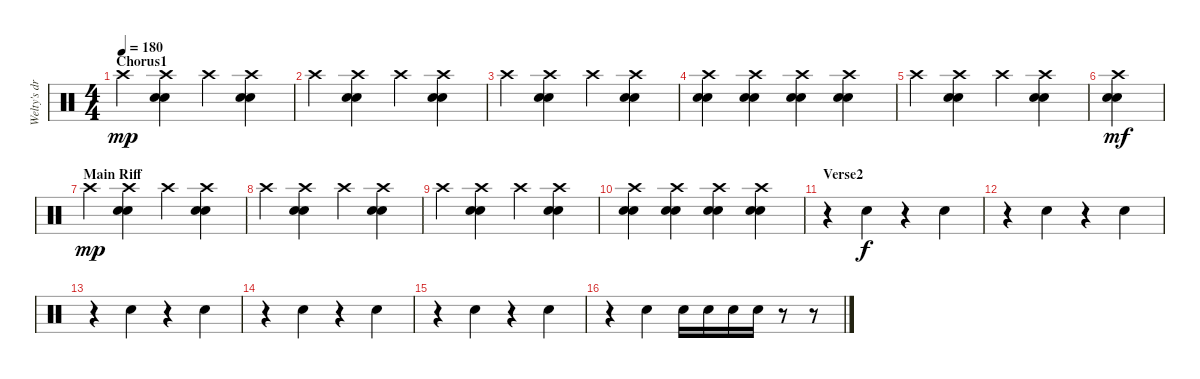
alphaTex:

\track ("Welty's drums" "Welty's dr") {instrument percussion}
\staff {score}
\articulation defaults
\ts (4 4)
\section ("" "Chorus1")
\tempo 180
\clef neutral
\ks c "Crash high (hit)".4{dy mp}
("Crash high (hit)" "Electric Snare (hit)" "Electric Snare (hit)").4 "Crash high (hit)".4 ("Crash high (hit)" "Electric Snare (hit)" "Electric Snare (hit)").4 |
"Crash high (hit)".4 ("Crash high (hit)" "Electric Snare (hit)" "Electric Snare (hit)").4 "Crash high (hit)".4 ("Crash high (hit)" "Electric Snare (hit)" "Electric Snare (hit)").4 |
"Crash high (hit)".4 ("Crash high (hit)" "Electric Snare (hit)" "Electric Snare (hit)").4 "Crash high (hit)".4 ("Crash high (hit)" "Electric Snare (hit)" "Electric Snare (hit)").4 |
("Crash high (hit)" "Electric Snare (hit)" "Electric Snare (hit)").4 ("Crash high (hit)" "Electric Snare (hit)" "Electric Snare (hit)").4 ("Crash high (hit)" "Electric Snare (hit)" "Electric Snare (hit)").4 ("Crash high (hit)" "Electric Snare (hit)" "Electric Snare (hit)").4 |
"Crash high (hit)".4 ("Crash high (hit)" "Electric Snare (hit)" "Electric Snare (hit)").4 "Crash high (hit)".4 ("Crash high (hit)" "Electric Snare (hit)" "Electric Snare (hit)").4 |
("Crash high (hit)" "Electric Snare (hit)" "Electric Snare (hit)").4{dy mf} |
\section ("" "Main Riff")
"Crash high (hit)".4{dy mp} ("Crash high (hit)" "Electric Snare (hit)" "Electric Snare (hit)").4 "Crash high (hit)".4 ("Crash high (hit)" "Electric Snare (hit)" "Electric Snare (hit)").4 |
"Crash high (hit)".4 ("Crash high (hit)" "Electric Snare (hit)" "Electric Snare (hit)").4 "Crash high (hit)".4 ("Crash high (hit)" "Electric Snare (hit)" "Electric Snare (hit)").4 |
"Crash high (hit)".4 ("Crash high (hit)" "Electric Snare (hit)" "Electric Snare (hit)").4 "Crash high (hit)".4 ("Crash high (hit)" "Electric Snare (hit)" "Electric Snare (hit)").4 |
("Crash high (hit)" "Electric Snare (hit)" "Electric Snare (hit)").4 ("Crash high (hit)" "Electric Snare (hit)" "Electric Snare (hit)").4 ("Crash high (hit)" "Electric Snare (hit)" "Electric Snare (hit)").4 ("Crash high (hit)" "Electric Snare (hit)" "Electric Snare (hit)").4 |
\section ("" "Verse2")
r.4 "Electric Snare (hit)".4{dy f} r.4 "Electric Snare (hit)".4 |
r.4 "Electric Snare (hit)".4 r.4 "Electric Snare (hit)".4 |
r.4 "Electric Snare (hit)".4 r.4 "Electric Snare (hit)".4 |
r.4 "Electric Snare (hit)".4 r.4 "Electric Snare (hit)".4 |
r.4 "Electric Snare (hit)".4 r.4 "Electric Snare (hit)".4 |
r.4 "Electric Snare (hit)".4 "Electric Snare (hit)".16 "Electric Snare (hit)".16 "Electric Snare (hit)".16 "Electric Snare (hit)".16 r.8 r.8
